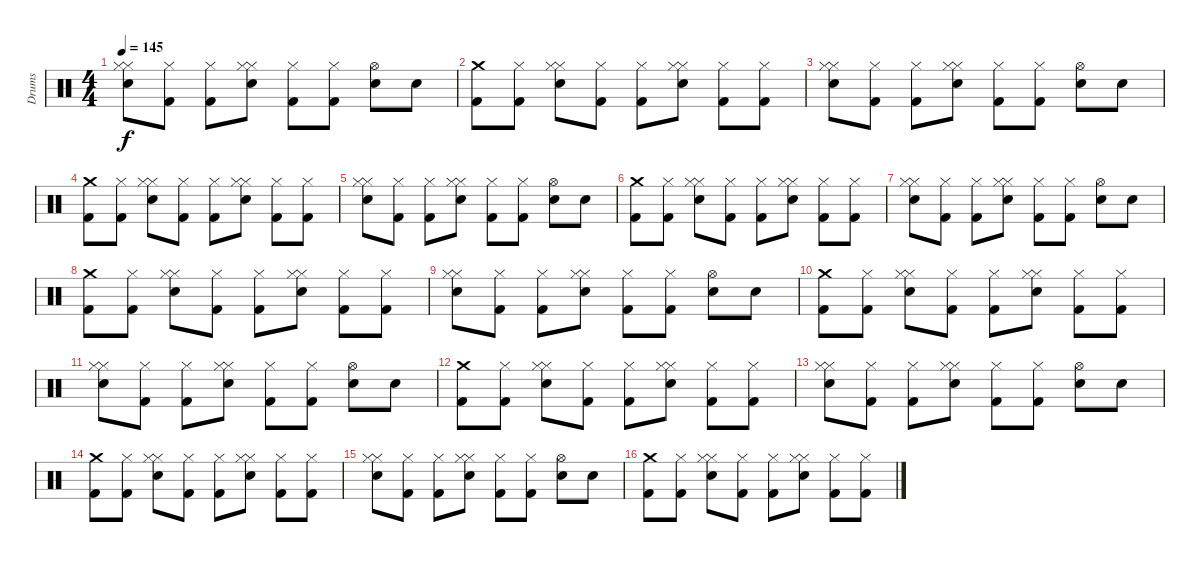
\track ("Drums" "Drums") {instrument percussion}
\staff {score}
\articulation defaults
\ts (4 4)
\tempo 145
\clef neutral
\ks c
("Snare (hit) 2" "Hi-Hat (closed)" "Hi-Hat (closed)").8{dy f} ("Kick (hit) 2" "Hi-Hat (closed)").8 ("Kick (hit) 2" "Hi-Hat (closed)").8 ("Snare (hit) 2" "Hi-Hat (closed)" "Hi-Hat (closed)").8 ("Kick (hit) 2" "Hi-Hat (closed)").8 ("Kick (hit) 2" "Hi-Hat (closed)").8 ("Snare (hit) 2" "Hi-Hat (open)").8 "Snare (hit) 2".8 |
("Crash medium (hit)" "Kick (hit) 2").8 ("Kick (hit) 2" "Hi-Hat (closed)").8 ("Snare (hit) 2" "Hi-Hat (closed)" "Hi-Hat (closed)").8 ("Kick (hit) 2" "Hi-Hat (closed)").8 ("Kick (hit) 2" "Hi-Hat (closed)").8 ("Snare (hit) 2" "Hi-Hat (closed)" "Hi-Hat (closed)").8 ("Kick (hit) 2" "Hi-Hat (closed)").8 ("Kick (hit) 2" "Hi-Hat (closed)").8 |
("Snare (hit) 2" "Hi-Hat (closed)" "Hi-Hat (closed)").8 ("Kick (hit) 2" "Hi-Hat (closed)").8 ("Kick (hit) 2" "Hi-Hat (closed)").8 ("Snare (hit) 2" "Hi-Hat (closed)" "Hi-Hat (closed)").8 ("Kick (hit) 2" "Hi-Hat (closed)").8 ("Kick (hit) 2" "Hi-Hat (closed)").8 ("Snare (hit) 2" "Hi-Hat (open)").8 "Snare (hit) 2".8 |
("Crash medium (hit)" "Kick (hit) 2").8 ("Kick (hit) 2" "Hi-Hat (closed)").8 ("Snare (hit) 2" "Hi-Hat (closed)" "Hi-Hat (closed)").8 ("Kick (hit) 2" "Hi-Hat (closed)").8 ("Kick (hit) 2" "Hi-Hat (closed)").8 ("Snare (hit) 2" "Hi-Hat (closed)" "Hi-Hat (closed)").8 ("Kick (hit) 2" "Hi-Hat (closed)").8 ("Kick (hit) 2" "Hi-Hat (closed)").8 |
("Snare (hit) 2" "Hi-Hat (closed)" "Hi-Hat (closed)").8 ("Kick (hit) 2" "Hi-Hat (closed)").8 ("Kick (hit) 2" "Hi-Hat (closed)").8 ("Snare (hit) 2" "Hi-Hat (closed)" "Hi-Hat (closed)").8 ("Kick (hit) 2" "Hi-Hat (closed)").8 ("Kick (hit) 2" "Hi-Hat (closed)").8 ("Snare (hit) 2" "Hi-Hat (open)").8 "Snare (hit) 2".8 |
("Crash medium (hit)" "Kick (hit) 2").8 ("Kick (hit) 2" "Hi-Hat (closed)").8 ("Snare (hit) 2" "Hi-Hat (closed)" "Hi-Hat (closed)").8 ("Kick (hit) 2" "Hi-Hat (closed)").8 ("Kick (hit) 2" "Hi-Hat (closed)").8 ("Snare (hit) 2" "Hi-Hat (closed)" "Hi-Hat (closed)").8 ("Kick (hit) 2" "Hi-Hat (closed)").8 ("Kick (hit) 2" "Hi-Hat (closed)").8 |
("Snare (hit) 2" "Hi-Hat (closed)" "Hi-Hat (closed)").8 ("Kick (hit) 2" "Hi-Hat (closed)").8 ("Kick (hit) 2" "Hi-Hat (closed)").8 ("Snare (hit) 2" "Hi-Hat (closed)" "Hi-Hat (closed)").8 ("Kick (hit) 2" "Hi-Hat (closed)").8 ("Kick (hit) 2" "Hi-Hat (closed)").8 ("Snare (hit) 2" "Hi-Hat (open)").8 "Snare (hit) 2".8 |
("Crash medium (hit)" "Kick (hit) 2").8 ("Kick (hit) 2" "Hi-Hat (closed)").8 ("Snare (hit) 2" "Hi-Hat (closed)" "Hi-Hat (closed)").8 ("Kick (hit) 2" "Hi-Hat (closed)").8 ("Kick (hit) 2" "Hi-Hat (closed)").8 ("Snare (hit) 2" "Hi-Hat (closed)" "Hi-Hat (closed)").8 ("Kick (hit) 2" "Hi-Hat (closed)").8 ("Kick (hit) 2" "Hi-Hat (closed)").8 |
("Snare (hit) 2" "Hi-Hat (closed)" "Hi-Hat (closed)").8 ("Kick (hit) 2" "Hi-Hat (closed)").8 ("Kick (hit) 2" "Hi-Hat (closed)").8 ("Snare (hit) 2" "Hi-Hat (closed)" "Hi-Hat (closed)").8 ("Kick (hit) 2" "Hi-Hat (closed)").8 ("Kick (hit) 2" "Hi-Hat (closed)").8 ("Snare (hit) 2" "Hi-Hat (open)").8 "Snare (hit) 2".8 |
("Crash medium (hit)" "Kick (hit) 2").8 ("Kick (hit) 2" "Hi-Hat (closed)").8 ("Snare (hit) 2" "Hi-Hat (closed)" "Hi-Hat (closed)").8 ("Kick (hit) 2" "Hi-Hat (closed)").8 ("Kick (hit) 2" "Hi-Hat (closed)").8 ("Snare (hit) 2" "Hi-Hat (closed)" "Hi-Hat (closed)").8 ("Kick (hit) 2" "Hi-Hat (closed)").8 ("Kick (hit) 2" "Hi-Hat (closed)").8 |
("Snare (hit) 2" "Hi-Hat (closed)" "Hi-Hat (closed)").8 ("Kick (hit) 2" "Hi-Hat (closed)").8 ("Kick (hit) 2" "Hi-Hat (closed)").8 ("Snare (hit) 2" "Hi-Hat (closed)" "Hi-Hat (closed)").8 ("Kick (hit) 2" "Hi-Hat (closed)").8 ("Kick (hit) 2" "Hi-Hat (closed)").8 ("Snare (hit) 2" "Hi-Hat (open)").8 "Snare (hit) 2".8 |
("Crash medium (hit)" "Kick (hit) 2").8 ("Kick (hit) 2" "Hi-Hat (closed)").8 ("Snare (hit) 2" "Hi-Hat (closed)" "Hi-Hat (closed)").8 ("Kick (hit) 2" "Hi-Hat (closed)").8 ("Kick (hit) 2" "Hi-Hat (closed)").8 ("Snare (hit) 2" "Hi-Hat (closed)" "Hi-Hat (closed)").8 ("Kick (hit) 2" "Hi-Hat (closed)").8 ("Kick (hit) 2" "Hi-Hat (closed)").8 |
("Snare (hit) 2" "Hi-Hat (closed)" "Hi-Hat (closed)").8 ("Kick (hit) 2" "Hi-Hat (closed)").8 ("Kick (hit) 2" "Hi-Hat (closed)").8 ("Snare (hit) 2" "Hi-Hat (closed)" "Hi-Hat (closed)").8 ("Kick (hit) 2" "Hi-Hat (closed)").8 ("Kick (hit) 2" "Hi-Hat (closed)").8 ("Snare (hit) 2" "Hi-Hat (open)").8 "Snare (hit) 2".8 |
("Crash medium (hit)" "Kick (hit) 2").8 ("Kick (hit) 2" "Hi-Hat (closed)").8 ("Snare (hit) 2" "Hi-Hat (closed)" "Hi-Hat (closed)").8 ("Kick (hit) 2" "Hi-Hat (closed)").8 ("Kick (hit) 2" "Hi-Hat (closed)").8 ("Snare (hit) 2" "Hi-Hat (closed)" "Hi-Hat (closed)").8 ("Kick (hit) 2" "Hi-Hat (closed)").8 ("Kick (hit) 2" "Hi-Hat (closed)").8 |
("Snare (hit) 2" "Hi-Hat (closed)" "Hi-Hat (closed)").8 ("Kick (hit) 2" "Hi-Hat (closed)").8 ("Kick (hit) 2" "Hi-Hat (closed)").8 ("Snare (hit) 2" "Hi-Hat (closed)" "Hi-Hat (closed)").8 ("Kick (hit) 2" "Hi-Hat (closed)").8 ("Kick (hit) 2" "Hi-Hat (closed)").8 ("Snare (hit) 2" "Hi-Hat (open)").8 "Snare (hit) 2".8 |
("Crash medium (hit)" "Kick (hit) 2").8 ("Kick (hit) 2" "Hi-Hat (closed)").8 ("Snare (hit) 2" "Hi-Hat (closed)" "Hi-Hat (closed)").8 ("Kick (hit) 2" "Hi-Hat (closed)").8 ("Kick (hit) 2" "Hi-Hat (closed)").8 ("Snare (hit) 2" "Hi-Hat (closed)" "Hi-Hat (closed)").8 ("Kick (hit) 2" "Hi-Hat (closed)").8 ("Kick (hit) 2" "Hi-Hat (closed)").8
